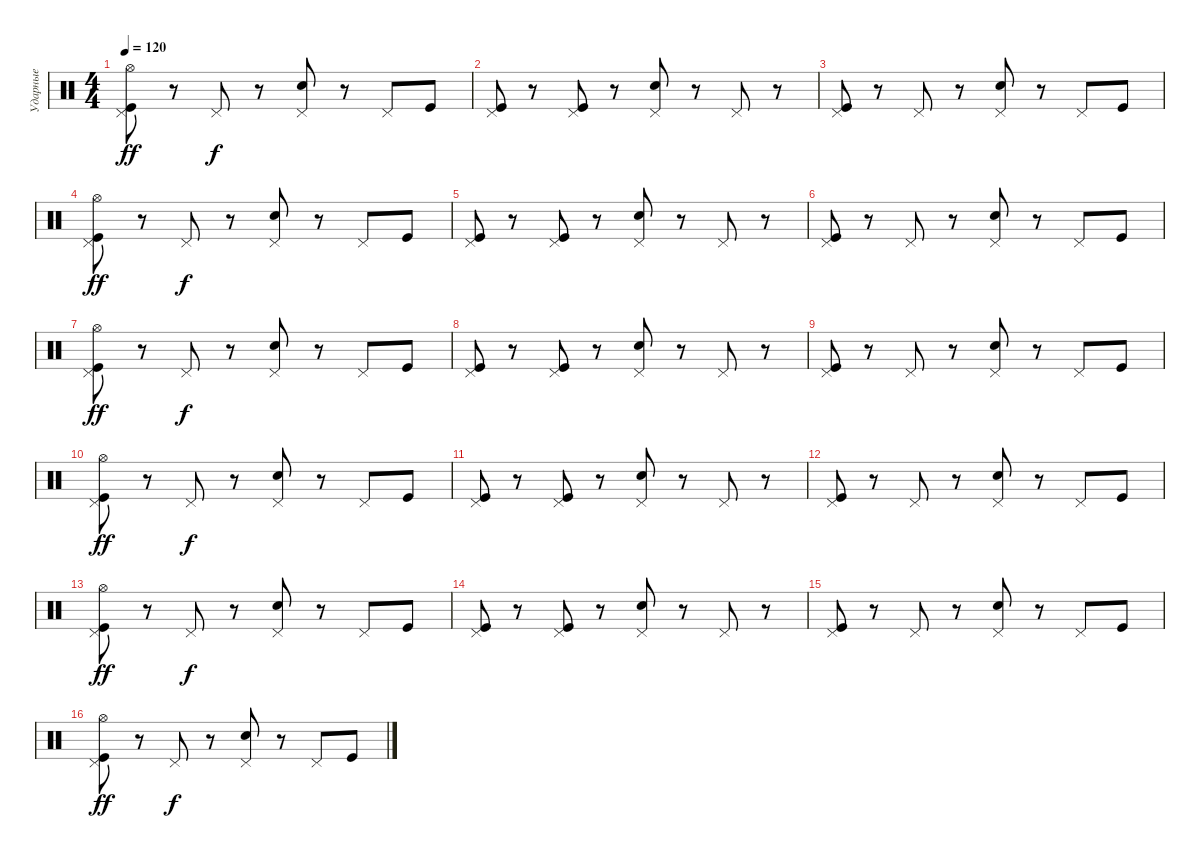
\track ("Ударные" "Ударные") {instrument percussion}
\staff {score}
\articulation defaults
\ts (4 4)
\tempo 120
\clef neutral
\ks c
("Kick (hit)" "Pedal Hi-Hat (hit)" "Hi-Hat (open)").8{dy ff} r.8 "Pedal Hi-Hat (hit)".8{dy f} r.8 ("Snare (hit) 2" "Pedal Hi-Hat (hit)").8 r.8 "Pedal Hi-Hat (hit)".8 "Kick (hit)".8 |
("Pedal Hi-Hat (hit)" "Kick (hit)").8 r.8 ("Kick (hit)" "Pedal Hi-Hat (hit)").8 r.8 ("Snare (hit) 2" "Pedal Hi-Hat (hit)").8 r.8 "Pedal Hi-Hat (hit)".8 r.8 |
("Kick (hit)" "Pedal Hi-Hat (hit)").8 r.8 "Pedal Hi-Hat (hit)".8 r.8 ("Snare (hit) 2" "Pedal Hi-Hat (hit)").8 r.8 "Pedal Hi-Hat (hit)".8 "Kick (hit)".8 |
("Kick (hit)" "Pedal Hi-Hat (hit)" "Hi-Hat (open)").8{dy ff} r.8 "Pedal Hi-Hat (hit)".8{dy f} r.8 ("Snare (hit) 2" "Pedal Hi-Hat (hit)").8 r.8 "Pedal Hi-Hat (hit)".8 "Kick (hit)".8 |
("Pedal Hi-Hat (hit)" "Kick (hit)").8 r.8 ("Kick (hit)" "Pedal Hi-Hat (hit)").8 r.8 ("Snare (hit) 2" "Pedal Hi-Hat (hit)").8 r.8 "Pedal Hi-Hat (hit)".8 r.8 |
("Kick (hit)" "Pedal Hi-Hat (hit)").8 r.8 "Pedal Hi-Hat (hit)".8 r.8 ("Snare (hit) 2" "Pedal Hi-Hat (hit)").8 r.8 "Pedal Hi-Hat (hit)".8 "Kick (hit)".8 |
("Kick (hit)" "Pedal Hi-Hat (hit)" "Hi-Hat (open)").8{dy ff} r.8 "Pedal Hi-Hat (hit)".8{dy f} r.8 ("Snare (hit) 2" "Pedal Hi-Hat (hit)").8 r.8 "Pedal Hi-Hat (hit)".8 "Kick (hit)".8 |
("Pedal Hi-Hat (hit)" "Kick (hit)").8 r.8 ("Kick (hit)" "Pedal Hi-Hat (hit)").8 r.8 ("Snare (hit) 2" "Pedal Hi-Hat (hit)").8 r.8 "Pedal Hi-Hat (hit)".8 r.8 |
("Kick (hit)" "Pedal Hi-Hat (hit)").8 r.8 "Pedal Hi-Hat (hit)".8 r.8 ("Snare (hit) 2" "Pedal Hi-Hat (hit)").8 r.8 "Pedal Hi-Hat (hit)".8 "Kick (hit)".8 |
("Kick (hit)" "Pedal Hi-Hat (hit)" "Hi-Hat (open)").8{dy ff} r.8 "Pedal Hi-Hat (hit)".8{dy f} r.8 ("Snare (hit) 2" "Pedal Hi-Hat (hit)").8 r.8 "Pedal Hi-Hat (hit)".8 "Kick (hit)".8 |
("Pedal Hi-Hat (hit)" "Kick (hit)").8 r.8 ("Kick (hit)" "Pedal Hi-Hat (hit)").8 r.8 ("Snare (hit) 2" "Pedal Hi-Hat (hit)").8 r.8 "Pedal Hi-Hat (hit)".8 r.8 |
("Kick (hit)" "Pedal Hi-Hat (hit)").8 r.8 "Pedal Hi-Hat (hit)".8 r.8 ("Snare (hit) 2" "Pedal Hi-Hat (hit)").8 r.8 "Pedal Hi-Hat (hit)".8 "Kick (hit)".8 |
("Kick (hit)" "Pedal Hi-Hat (hit)" "Hi-Hat (open)").8{dy ff} r.8 "Pedal Hi-Hat (hit)".8{dy f} r.8 ("Snare (hit) 2" "Pedal Hi-Hat (hit)").8 r.8 "Pedal Hi-Hat (hit)".8 "Kick (hit)".8 |
("Pedal Hi-Hat (hit)" "Kick (hit)").8 r.8 ("Kick (hit)" "Pedal Hi-Hat (hit)").8 r.8 ("Snare (hit) 2" "Pedal Hi-Hat (hit)").8 r.8 "Pedal Hi-Hat (hit)".8 r.8 |
("Kick (hit)" "Pedal Hi-Hat (hit)").8 r.8 "Pedal Hi-Hat (hit)".8 r.8 ("Snare (hit) 2" "Pedal Hi-Hat (hit)").8 r.8 "Pedal Hi-Hat (hit)".8 "Kick (hit)".8 |
("Kick (hit)" "Pedal Hi-Hat (hit)" "Hi-Hat (open)").8{dy ff} r.8 "Pedal Hi-Hat (hit)".8{dy f} r.8 ("Snare (hit) 2" "Pedal Hi-Hat (hit)").8 r.8 "Pedal Hi-Hat (hit)".8 "Kick (hit)".8
